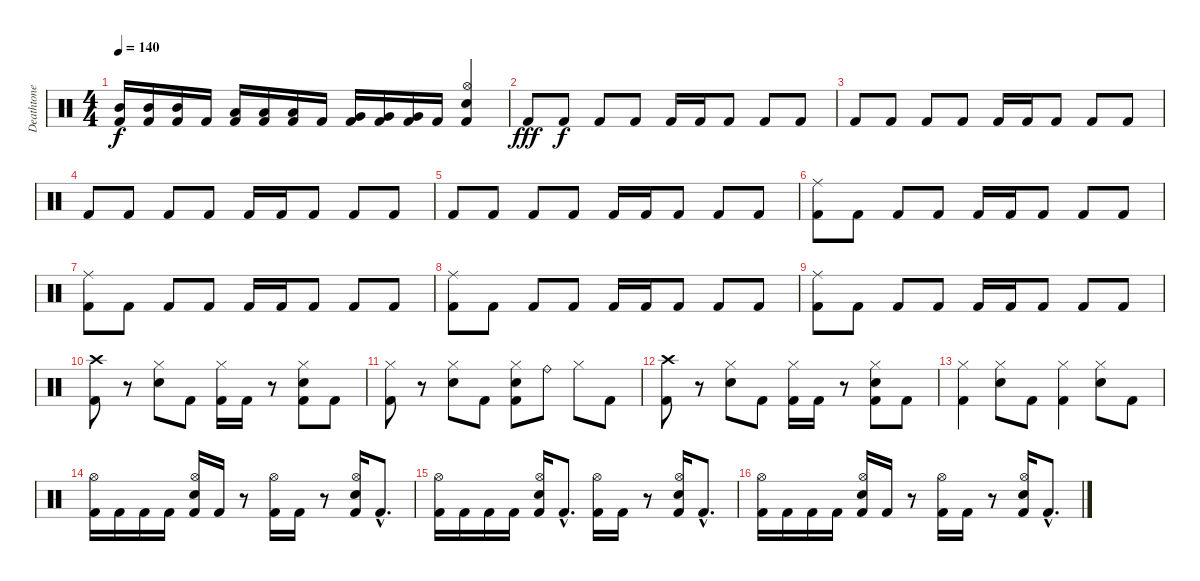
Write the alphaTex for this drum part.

\track ("Deathtone" "Deathtone") {instrument percussion}
\staff {score}
\articulation defaults
\ts (4 4)
\tempo 140
\clef neutral
\ks c
("Mid Tom (hit)" "Kick (hit) 2").16{dy f} ("Mid Tom (hit)" "Kick (hit) 2").16 ("Mid Tom (hit)" "Kick (hit) 2").16 "Kick (hit) 2".16 ("Low Tom (hit)" "Kick (hit) 2").16 ("Low Tom (hit)" "Kick (hit) 2").16 ("Low Tom (hit)" "Kick (hit) 2").16 "Kick (hit) 2".16 ("Very Low Tom (hit)" "Kick (hit) 2").16 ("Very Low Tom (hit)" "Kick (hit) 2").16 ("Very Low Tom (hit)" "Kick (hit) 2").16 "Kick (hit) 2".16 ("Hi-Hat (open)" "Snare (hit) 2" "Kick (hit) 2").4 |
"Kick (hit) 2".8{dy fff} "Kick (hit) 2".8{dy f} "Kick (hit) 2".8 "Kick (hit) 2".8 "Kick (hit) 2".16 "Kick (hit) 2".16 "Kick (hit) 2".8 "Kick (hit) 2".8 "Kick (hit) 2".8 |
"Kick (hit) 2".8 "Kick (hit) 2".8 "Kick (hit) 2".8 "Kick (hit) 2".8 "Kick (hit) 2".16 "Kick (hit) 2".16 "Kick (hit) 2".8 "Kick (hit) 2".8 "Kick (hit) 2".8 |
"Kick (hit) 2".8 "Kick (hit) 2".8 "Kick (hit) 2".8 "Kick (hit) 2".8 "Kick (hit) 2".16 "Kick (hit) 2".16 "Kick (hit) 2".8 "Kick (hit) 2".8 "Kick (hit) 2".8 |
"Kick (hit) 2".8 "Kick (hit) 2".8 "Kick (hit) 2".8 "Kick (hit) 2".8 "Kick (hit) 2".16 "Kick (hit) 2".16 "Kick (hit) 2".8 "Kick (hit) 2".8 "Kick (hit) 2".8 |
("Ride (middle)" "Kick (hit) 2").8 "Kick (hit) 2".8 "Kick (hit) 2".8 "Kick (hit) 2".8 "Kick (hit) 2".16 "Kick (hit) 2".16 "Kick (hit) 2".8 "Kick (hit) 2".8 "Kick (hit) 2".8 |
("Ride (middle)" "Kick (hit) 2").8 "Kick (hit) 2".8 "Kick (hit) 2".8 "Kick (hit) 2".8 "Kick (hit) 2".16 "Kick (hit) 2".16 "Kick (hit) 2".8 "Kick (hit) 2".8 "Kick (hit) 2".8 |
("Ride (middle)" "Kick (hit) 2").8 "Kick (hit) 2".8 "Kick (hit) 2".8 "Kick (hit) 2".8 "Kick (hit) 2".16 "Kick (hit) 2".16 "Kick (hit) 2".8 "Kick (hit) 2".8 "Kick (hit) 2".8 |
("Ride (middle)" "Kick (hit) 2").8 "Kick (hit) 2".8 "Kick (hit) 2".8 "Kick (hit) 2".8 "Kick (hit) 2".16 "Kick (hit) 2".16 "Kick (hit) 2".8 "Kick (hit) 2".8 "Kick (hit) 2".8 |
("Crash high (hit)" "Kick (hit) 2").8 r.8 ("Hi-Hat (closed)" "Snare (hit) 2").8 "Kick (hit) 2".8 ("Hi-Hat (closed)" "Kick (hit) 2").16 "Kick (hit) 2".16 r.8 ("Hi-Hat (closed)" "Snare (hit) 2" "Kick (hit) 2").8 "Kick (hit) 2".8 |
("Hi-Hat (closed)" "Kick (hit) 2").8 r.8 ("Hi-Hat (closed)" "Snare (hit) 2").8 "Kick (hit) 2".8 ("Hi-Hat (closed)" "Snare (hit) 2" "Kick (hit) 2").8 "Ride (bell)".8 "Hi-Hat (closed)".8 "Kick (hit) 2".8 |
("Crash high (hit)" "Kick (hit) 2").8 r.8 ("Hi-Hat (closed)" "Snare (hit) 2").8 "Kick (hit) 2".8 ("Hi-Hat (closed)" "Kick (hit) 2").16 "Kick (hit) 2".16 r.8 ("Hi-Hat (closed)" "Snare (hit) 2" "Kick (hit) 2").8 "Kick (hit) 2".8 |
("Hi-Hat (closed)" "Kick (hit) 2").4 ("Hi-Hat (closed)" "Snare (hit) 2").8 "Kick (hit) 2".8 ("Hi-Hat (closed)" "Kick (hit) 2").4 ("Hi-Hat (closed)" "Snare (hit) 2").8 "Kick (hit) 2".8 |
("Hi-Hat (open)" "Kick (hit) 2").16 "Kick (hit) 2".16 "Kick (hit) 2".16 "Kick (hit) 2".16 ("Hi-Hat (open)" "Snare (hit) 2" "Kick (hit) 2").16 "Kick (hit) 2".16 r.8 ("Hi-Hat (open)" "Kick (hit) 2").16 "Kick (hit) 2".16 r.8 ("Hi-Hat (open)" "Snare (hit) 2" "Kick (hit) 2").16 "Kick (hit) 2"{hac}.8{d} |
("Hi-Hat (open)" "Kick (hit) 2").16 "Kick (hit) 2".16 "Kick (hit) 2".16 "Kick (hit) 2".16 ("Hi-Hat (open)" "Snare (hit) 2" "Kick (hit) 2").16 "Kick (hit) 2"{hac}.8{d} ("Hi-Hat (open)" "Kick (hit) 2").16 "Kick (hit) 2".16 r.8 ("Hi-Hat (open)" "Snare (hit) 2" "Kick (hit) 2").16 "Kick (hit) 2"{hac}.8{d} |
("Hi-Hat (open)" "Kick (hit) 2").16 "Kick (hit) 2".16 "Kick (hit) 2".16 "Kick (hit) 2".16 ("Hi-Hat (open)" "Snare (hit) 2" "Kick (hit) 2").16 "Kick (hit) 2".16 r.8 ("Hi-Hat (open)" "Kick (hit) 2").16 "Kick (hit) 2".16 r.8 ("Hi-Hat (open)" "Snare (hit) 2" "Kick (hit) 2").16 "Kick (hit) 2"{hac}.8{d}
